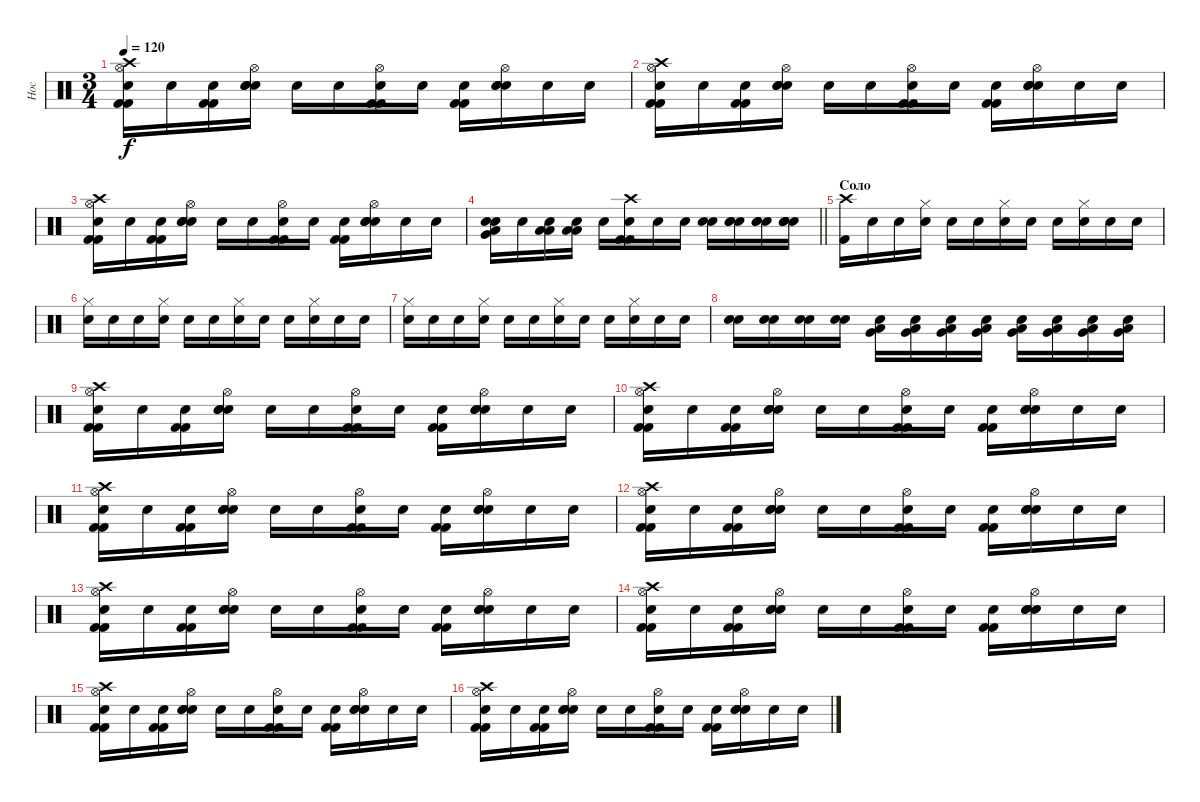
\track ("Нос" "Нос") {instrument percussion}
\staff {score}
\articulation defaults
\ts (3 4)
\tempo 120
\clef neutral
\ks c
("Crash high (hit)" "Hi-Hat (open)" "Kick (hit) 2" "Kick (hit) 2" "Snare (hit)").16{dy f} "Snare (hit)".16 ("Kick (hit) 2" "Kick (hit) 2" "Snare (hit)").16 ("Hi-Hat (open)" "Snare (hit) 2" "Snare (hit) 2" "Snare (hit)").16 "Snare (hit)".16 "Snare (hit)".16 ("Hi-Hat (open)" "Kick (hit) 2" "Kick (hit) 2" "Snare (hit)").16 "Snare (hit)".16 ("Kick (hit) 2" "Kick (hit) 2" "Snare (hit)").16 ("Hi-Hat (open)" "Snare (hit) 2" "Snare (hit) 2" "Snare (hit)").16 "Snare (hit)".16 "Snare (hit)".16 |
("Crash high (hit)" "Hi-Hat (open)" "Kick (hit) 2" "Kick (hit) 2" "Snare (hit)").16 "Snare (hit)".16 ("Kick (hit) 2" "Kick (hit) 2" "Snare (hit)").16 ("Hi-Hat (open)" "Snare (hit) 2" "Snare (hit) 2" "Snare (hit)").16 "Snare (hit)".16 "Snare (hit)".16 ("Hi-Hat (open)" "Kick (hit) 2" "Kick (hit) 2" "Snare (hit)").16 "Snare (hit)".16 ("Kick (hit) 2" "Kick (hit) 2" "Snare (hit)").16 ("Hi-Hat (open)" "Snare (hit) 2" "Snare (hit) 2" "Snare (hit)").16 "Snare (hit)".16 "Snare (hit)".16 |
("Crash high (hit)" "Hi-Hat (open)" "Kick (hit) 2" "Kick (hit) 2" "Snare (hit)").16 "Snare (hit)".16 ("Kick (hit) 2" "Kick (hit) 2" "Snare (hit)").16 ("Hi-Hat (open)" "Snare (hit) 2" "Snare (hit) 2" "Snare (hit)").16 "Snare (hit)".16 "Snare (hit)".16 ("Hi-Hat (open)" "Kick (hit) 2" "Kick (hit) 2" "Snare (hit)").16 "Snare (hit)".16 ("Kick (hit) 2" "Kick (hit) 2" "Snare (hit)").16 ("Hi-Hat (open)" "Snare (hit) 2" "Snare (hit) 2" "Snare (hit)").16 "Snare (hit)".16 "Snare (hit)".16 |
\barLineRight lightlight
("Very Low Tom (hit)" "Snare (hit) 2" "Low Tom (hit)" "Snare (hit)").16 "Snare (hit)".16 ("Low Tom (hit)" "Low Tom (hit)" "Snare (hit)").16 ("Low Floor Tom (hit)" "Low Floor Tom (hit)" "Snare (hit)").16 "Snare (hit)".16 ("Crash high (hit)" "Kick (hit) 2" "Kick (hit) 2" "Snare (hit)").16 "Snare (hit)".16 "Snare (hit)".16 ("Snare (hit) 2" "Snare (hit)").16 ("Snare (hit) 2" "Snare (hit) 2" "Snare (hit)").16 ("Snare (hit) 2" "Snare (hit) 2" "Snare (hit)").16 ("Snare (hit) 2" "Snare (hit) 2" "Snare (hit) 2" "Snare (hit)").16 |
\section ("" "Соло")
("Crash high (hit)" "Kick (hit) 2").16 "Snare (hit)".16 "Snare (hit)".16 ("Hi-Hat (closed)" "Snare (hit)").16 "Snare (hit)".16 "Snare (hit)".16 ("Hi-Hat (closed)" "Snare (hit)").16 "Snare (hit)".16 "Snare (hit)".16 ("Hi-Hat (closed)" "Snare (hit)").16 "Snare (hit)".16 "Snare (hit)".16 |
("Hi-Hat (closed)" "Snare (hit)").16 "Snare (hit)".16 "Snare (hit)".16 ("Hi-Hat (closed)" "Snare (hit)").16 "Snare (hit)".16 "Snare (hit)".16 ("Hi-Hat (closed)" "Snare (hit)").16 "Snare (hit)".16 "Snare (hit)".16 ("Hi-Hat (closed)" "Snare (hit)").16 "Snare (hit)".16 "Snare (hit)".16 |
("Hi-Hat (closed)" "Snare (hit)").16 "Snare (hit)".16 "Snare (hit)".16 ("Hi-Hat (closed)" "Snare (hit)").16 "Snare (hit)".16 "Snare (hit)".16 ("Hi-Hat (closed)" "Snare (hit)").16 "Snare (hit)".16 "Snare (hit)".16 ("Hi-Hat (closed)" "Snare (hit)").16 "Snare (hit)".16 "Snare (hit)".16 |
("Snare (hit) 2" "Snare (hit)").16 ("Snare (hit) 2" "Snare (hit)").16 ("Snare (hit) 2" "Snare (hit)").16 ("Snare (hit) 2" "Snare (hit)").16 ("Very Low Tom (hit)" "Low Tom (hit)" "Snare (hit)").16 ("Very Low Tom (hit)" "Low Tom (hit)" "Snare (hit)").16 ("Very Low Tom (hit)" "Low Tom (hit)" "Snare (hit)").16 ("Very Low Tom (hit)" "Low Tom (hit)" "Snare (hit)").16 ("Low Floor Tom (hit)" "Very Low Tom (hit)" "Snare (hit)").16 ("Low Floor Tom (hit)" "Very Low Tom (hit)" "Snare (hit)").16 ("Low Floor Tom (hit)" "Very Low Tom (hit)" "Snare (hit)").16 ("Low Floor Tom (hit)" "Very Low Tom (hit)" "Snare (hit)").16 |
("Crash high (hit)" "Hi-Hat (open)" "Kick (hit) 2" "Kick (hit) 2" "Snare (hit)").16 "Snare (hit)".16 ("Kick (hit) 2" "Kick (hit) 2" "Snare (hit)").16 ("Hi-Hat (open)" "Snare (hit) 2" "Snare (hit) 2" "Snare (hit)").16 "Snare (hit)".16 "Snare (hit)".16 ("Hi-Hat (open)" "Kick (hit) 2" "Kick (hit) 2" "Snare (hit)").16 "Snare (hit)".16 ("Kick (hit) 2" "Kick (hit) 2" "Snare (hit)").16 ("Hi-Hat (open)" "Snare (hit) 2" "Snare (hit) 2" "Snare (hit)").16 "Snare (hit)".16 "Snare (hit)".16 |
("Crash high (hit)" "Hi-Hat (open)" "Kick (hit) 2" "Kick (hit) 2" "Snare (hit)").16 "Snare (hit)".16 ("Kick (hit) 2" "Kick (hit) 2" "Snare (hit)").16 ("Hi-Hat (open)" "Snare (hit) 2" "Snare (hit) 2" "Snare (hit)").16 "Snare (hit)".16 "Snare (hit)".16 ("Hi-Hat (open)" "Kick (hit) 2" "Kick (hit) 2" "Snare (hit)").16 "Snare (hit)".16 ("Kick (hit) 2" "Kick (hit) 2" "Snare (hit)").16 ("Hi-Hat (open)" "Snare (hit) 2" "Snare (hit) 2" "Snare (hit)").16 "Snare (hit)".16 "Snare (hit)".16 |
("Crash high (hit)" "Hi-Hat (open)" "Kick (hit) 2" "Kick (hit) 2" "Snare (hit)").16 "Snare (hit)".16 ("Kick (hit) 2" "Kick (hit) 2" "Snare (hit)").16 ("Hi-Hat (open)" "Snare (hit) 2" "Snare (hit) 2" "Snare (hit)").16 "Snare (hit)".16 "Snare (hit)".16 ("Hi-Hat (open)" "Kick (hit) 2" "Kick (hit) 2" "Snare (hit)").16 "Snare (hit)".16 ("Kick (hit) 2" "Kick (hit) 2" "Snare (hit)").16 ("Hi-Hat (open)" "Snare (hit) 2" "Snare (hit) 2" "Snare (hit)").16 "Snare (hit)".16 "Snare (hit)".16 |
("Crash high (hit)" "Hi-Hat (open)" "Kick (hit) 2" "Kick (hit) 2" "Snare (hit)").16 "Snare (hit)".16 ("Kick (hit) 2" "Kick (hit) 2" "Snare (hit)").16 ("Hi-Hat (open)" "Snare (hit) 2" "Snare (hit) 2" "Snare (hit)").16 "Snare (hit)".16 "Snare (hit)".16 ("Hi-Hat (open)" "Kick (hit) 2" "Kick (hit) 2" "Snare (hit)").16 "Snare (hit)".16 ("Kick (hit) 2" "Kick (hit) 2" "Snare (hit)").16 ("Hi-Hat (open)" "Snare (hit) 2" "Snare (hit) 2" "Snare (hit)").16 "Snare (hit)".16 "Snare (hit)".16 |
("Crash high (hit)" "Hi-Hat (open)" "Kick (hit) 2" "Kick (hit) 2" "Snare (hit)").16 "Snare (hit)".16 ("Kick (hit) 2" "Kick (hit) 2" "Snare (hit)").16 ("Hi-Hat (open)" "Snare (hit) 2" "Snare (hit) 2" "Snare (hit)").16 "Snare (hit)".16 "Snare (hit)".16 ("Hi-Hat (open)" "Kick (hit) 2" "Kick (hit) 2" "Snare (hit)").16 "Snare (hit)".16 ("Kick (hit) 2" "Kick (hit) 2" "Snare (hit)").16 ("Hi-Hat (open)" "Snare (hit) 2" "Snare (hit) 2" "Snare (hit)").16 "Snare (hit)".16 "Snare (hit)".16 |
("Crash high (hit)" "Hi-Hat (open)" "Kick (hit) 2" "Kick (hit) 2" "Snare (hit)").16 "Snare (hit)".16 ("Kick (hit) 2" "Kick (hit) 2" "Snare (hit)").16 ("Hi-Hat (open)" "Snare (hit) 2" "Snare (hit) 2" "Snare (hit)").16 "Snare (hit)".16 "Snare (hit)".16 ("Hi-Hat (open)" "Kick (hit) 2" "Kick (hit) 2" "Snare (hit)").16 "Snare (hit)".16 ("Kick (hit) 2" "Kick (hit) 2" "Snare (hit)").16 ("Hi-Hat (open)" "Snare (hit) 2" "Snare (hit) 2" "Snare (hit)").16 "Snare (hit)".16 "Snare (hit)".16 |
("Crash high (hit)" "Hi-Hat (open)" "Kick (hit) 2" "Kick (hit) 2" "Snare (hit)").16 "Snare (hit)".16 ("Kick (hit) 2" "Kick (hit) 2" "Snare (hit)").16 ("Hi-Hat (open)" "Snare (hit) 2" "Snare (hit) 2" "Snare (hit)").16 "Snare (hit)".16 "Snare (hit)".16 ("Hi-Hat (open)" "Kick (hit) 2" "Kick (hit) 2" "Snare (hit)").16 "Snare (hit)".16 ("Kick (hit) 2" "Kick (hit) 2" "Snare (hit)").16 ("Hi-Hat (open)" "Snare (hit) 2" "Snare (hit) 2" "Snare (hit)").16 "Snare (hit)".16 "Snare (hit)".16 |
("Crash high (hit)" "Hi-Hat (open)" "Kick (hit) 2" "Kick (hit) 2" "Snare (hit)").16 "Snare (hit)".16 ("Kick (hit) 2" "Kick (hit) 2" "Snare (hit)").16 ("Hi-Hat (open)" "Snare (hit) 2" "Snare (hit) 2" "Snare (hit)").16 "Snare (hit)".16 "Snare (hit)".16 ("Hi-Hat (open)" "Kick (hit) 2" "Kick (hit) 2" "Snare (hit)").16 "Snare (hit)".16 ("Kick (hit) 2" "Kick (hit) 2" "Snare (hit)").16 ("Hi-Hat (open)" "Snare (hit) 2" "Snare (hit) 2" "Snare (hit)").16 "Snare (hit)".16 "Snare (hit)".16
